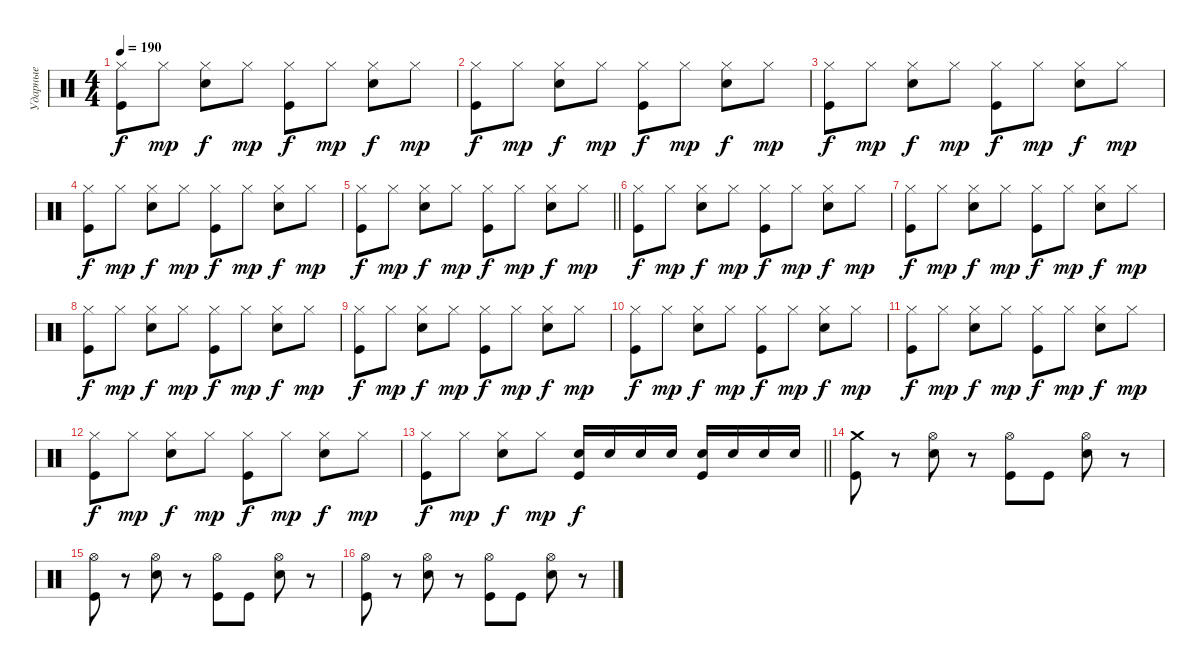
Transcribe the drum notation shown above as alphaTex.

\track ("Ударные" "Ударные") {instrument percussion}
\staff {score}
\articulation defaults
\ts (4 4)
\tempo 190
\clef neutral
\ks c
("Hi-Hat (closed)" "Kick (hit)").8{dy f} "Hi-Hat (closed)".8{dy mp} ("Hi-Hat (closed)" "Electric Snare (hit)").8{dy f} "Hi-Hat (closed)".8{dy mp} ("Hi-Hat (closed)" "Kick (hit)").8{dy f} "Hi-Hat (closed)".8{dy mp} ("Hi-Hat (closed)" "Electric Snare (hit)").8{dy f} "Hi-Hat (closed)".8{dy mp} |
("Hi-Hat (closed)" "Kick (hit)").8{dy f} "Hi-Hat (closed)".8{dy mp} ("Hi-Hat (closed)" "Electric Snare (hit)").8{dy f} "Hi-Hat (closed)".8{dy mp} ("Hi-Hat (closed)" "Kick (hit)").8{dy f} "Hi-Hat (closed)".8{dy mp} ("Hi-Hat (closed)" "Electric Snare (hit)").8{dy f} "Hi-Hat (closed)".8{dy mp} |
("Hi-Hat (closed)" "Kick (hit)").8{dy f} "Hi-Hat (closed)".8{dy mp} ("Hi-Hat (closed)" "Electric Snare (hit)").8{dy f} "Hi-Hat (closed)".8{dy mp} ("Hi-Hat (closed)" "Kick (hit)").8{dy f} "Hi-Hat (closed)".8{dy mp} ("Hi-Hat (closed)" "Electric Snare (hit)").8{dy f} "Hi-Hat (closed)".8{dy mp} |
("Hi-Hat (closed)" "Kick (hit)").8{dy f} "Hi-Hat (closed)".8{dy mp} ("Hi-Hat (closed)" "Electric Snare (hit)").8{dy f} "Hi-Hat (closed)".8{dy mp} ("Hi-Hat (closed)" "Kick (hit)").8{dy f} "Hi-Hat (closed)".8{dy mp} ("Hi-Hat (closed)" "Electric Snare (hit)").8{dy f} "Hi-Hat (closed)".8{dy mp} |
\barLineRight lightlight
("Hi-Hat (closed)" "Kick (hit)").8{dy f} "Hi-Hat (closed)".8{dy mp} ("Hi-Hat (closed)" "Electric Snare (hit)").8{dy f} "Hi-Hat (closed)".8{dy mp} ("Hi-Hat (closed)" "Kick (hit)").8{dy f} "Hi-Hat (closed)".8{dy mp} ("Hi-Hat (closed)" "Electric Snare (hit)").8{dy f} "Hi-Hat (closed)".8{dy mp} |
\section ("" " ")
("Hi-Hat (closed)" "Kick (hit)").8{dy f} "Hi-Hat (closed)".8{dy mp} ("Hi-Hat (closed)" "Electric Snare (hit)").8{dy f} "Hi-Hat (closed)".8{dy mp} ("Hi-Hat (closed)" "Kick (hit)").8{dy f} "Hi-Hat (closed)".8{dy mp} ("Hi-Hat (closed)" "Electric Snare (hit)").8{dy f} "Hi-Hat (closed)".8{dy mp} |
("Hi-Hat (closed)" "Kick (hit)").8{dy f} "Hi-Hat (closed)".8{dy mp} ("Hi-Hat (closed)" "Electric Snare (hit)").8{dy f} "Hi-Hat (closed)".8{dy mp} ("Hi-Hat (closed)" "Kick (hit)").8{dy f} "Hi-Hat (closed)".8{dy mp} ("Hi-Hat (closed)" "Electric Snare (hit)").8{dy f} "Hi-Hat (closed)".8{dy mp} |
("Hi-Hat (closed)" "Kick (hit)").8{dy f} "Hi-Hat (closed)".8{dy mp} ("Hi-Hat (closed)" "Electric Snare (hit)").8{dy f} "Hi-Hat (closed)".8{dy mp} ("Hi-Hat (closed)" "Kick (hit)").8{dy f} "Hi-Hat (closed)".8{dy mp} ("Hi-Hat (closed)" "Electric Snare (hit)").8{dy f} "Hi-Hat (closed)".8{dy mp} |
("Hi-Hat (closed)" "Kick (hit)").8{dy f} "Hi-Hat (closed)".8{dy mp} ("Hi-Hat (closed)" "Electric Snare (hit)").8{dy f} "Hi-Hat (closed)".8{dy mp} ("Hi-Hat (closed)" "Kick (hit)").8{dy f} "Hi-Hat (closed)".8{dy mp} ("Hi-Hat (closed)" "Electric Snare (hit)").8{dy f} "Hi-Hat (closed)".8{dy mp} |
("Hi-Hat (closed)" "Kick (hit)").8{dy f} "Hi-Hat (closed)".8{dy mp} ("Hi-Hat (closed)" "Electric Snare (hit)").8{dy f} "Hi-Hat (closed)".8{dy mp} ("Hi-Hat (closed)" "Kick (hit)").8{dy f} "Hi-Hat (closed)".8{dy mp} ("Hi-Hat (closed)" "Electric Snare (hit)").8{dy f} "Hi-Hat (closed)".8{dy mp} |
("Hi-Hat (closed)" "Kick (hit)").8{dy f} "Hi-Hat (closed)".8{dy mp} ("Hi-Hat (closed)" "Electric Snare (hit)").8{dy f} "Hi-Hat (closed)".8{dy mp} ("Hi-Hat (closed)" "Kick (hit)").8{dy f} "Hi-Hat (closed)".8{dy mp} ("Hi-Hat (closed)" "Electric Snare (hit)").8{dy f} "Hi-Hat (closed)".8{dy mp} |
("Hi-Hat (closed)" "Kick (hit)").8{dy f} "Hi-Hat (closed)".8{dy mp} ("Hi-Hat (closed)" "Electric Snare (hit)").8{dy f} "Hi-Hat (closed)".8{dy mp} ("Hi-Hat (closed)" "Kick (hit)").8{dy f} "Hi-Hat (closed)".8{dy mp} ("Hi-Hat (closed)" "Electric Snare (hit)").8{dy f} "Hi-Hat (closed)".8{dy mp} |
\barLineRight lightlight
("Hi-Hat (closed)" "Kick (hit)").8{dy f} "Hi-Hat (closed)".8{dy mp} ("Hi-Hat (closed)" "Electric Snare (hit)").8{dy f} "Hi-Hat (closed)".8{dy mp} ("Electric Snare (hit)" "Kick (hit)").16{dy f} "Electric Snare (hit)".16 "Electric Snare (hit)".16 "Electric Snare (hit)".16 ("Electric Snare (hit)" "Kick (hit)").16 "Electric Snare (hit)".16 "Electric Snare (hit)".16 "Electric Snare (hit)".16 |
\section ("" " ")
("Crash medium (hit)" "Kick (hit)").8 r.8 ("Hi-Hat (open)" "Electric Snare (hit)").8 r.8 ("Hi-Hat (open)" "Kick (hit)").8 "Kick (hit)".8 ("Hi-Hat (open)" "Electric Snare (hit)").8 r.8 |
("Hi-Hat (open)" "Kick (hit)").8 r.8 ("Hi-Hat (open)" "Electric Snare (hit)").8 r.8 ("Hi-Hat (open)" "Kick (hit)").8 "Kick (hit)".8 ("Hi-Hat (open)" "Electric Snare (hit)").8 r.8 |
("Hi-Hat (open)" "Kick (hit)").8 r.8 ("Hi-Hat (open)" "Electric Snare (hit)").8 r.8 ("Hi-Hat (open)" "Kick (hit)").8 "Kick (hit)".8 ("Hi-Hat (open)" "Electric Snare (hit)").8 r.8
